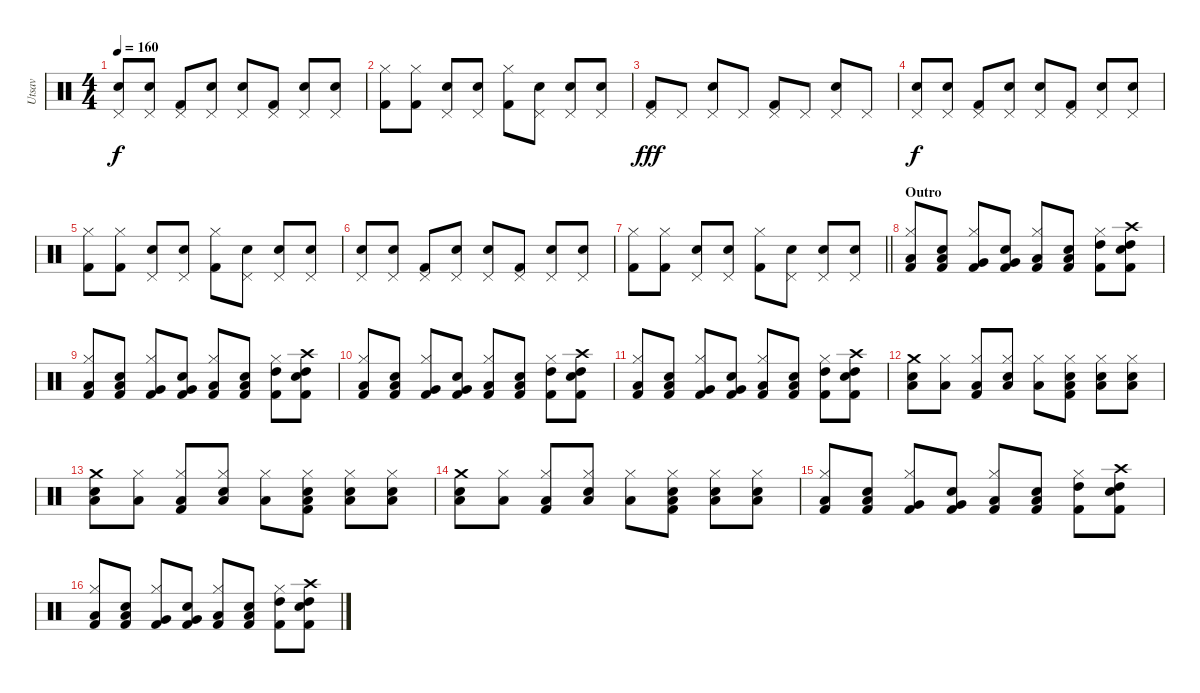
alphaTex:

\track ("Utsav" "Utsav") {instrument percussion}
\staff {score}
\articulation defaults
\ts (4 4)
\tempo 160
\clef neutral
\ks c
("Snare (hit) 2" "Pedal Hi-Hat (hit)").8{dy f} ("Snare (hit) 2" "Pedal Hi-Hat (hit)").8 ("Pedal Hi-Hat (hit)" "Kick (hit) 2").8 ("Snare (hit) 2" "Pedal Hi-Hat (hit)").8 ("Snare (hit) 2" "Pedal Hi-Hat (hit)").8 ("Pedal Hi-Hat (hit)" "Kick (hit) 2").8 ("Snare (hit) 2" "Pedal Hi-Hat (hit)").8 ("Snare (hit) 2" "Pedal Hi-Hat (hit)").8 |
("Kick (hit) 2" "Hi-Hat (closed)").8 ("Kick (hit) 2" "Hi-Hat (closed)").8 ("Pedal Hi-Hat (hit)" "Snare (hit) 2").8 ("Pedal Hi-Hat (hit)" "Snare (hit) 2").8 ("Kick (hit) 2" "Hi-Hat (closed)").8 ("Pedal Hi-Hat (hit)" "Snare (hit) 2").8 ("Pedal Hi-Hat (hit)" "Snare (hit) 2").8 ("Pedal Hi-Hat (hit)" "Snare (hit) 2").8 |
("Pedal Hi-Hat (hit)" "Kick (hit) 2").8{dy fff} "Pedal Hi-Hat (hit)".8 ("Pedal Hi-Hat (hit)" "Electric Snare (hit)").8 "Pedal Hi-Hat (hit)".8 ("Pedal Hi-Hat (hit)" "Kick (hit) 2").8 "Pedal Hi-Hat (hit)".8 ("Pedal Hi-Hat (hit)" "Electric Snare (hit)").8 "Pedal Hi-Hat (hit)".8 |
("Snare (hit) 2" "Pedal Hi-Hat (hit)").8{dy f} ("Snare (hit) 2" "Pedal Hi-Hat (hit)").8 ("Pedal Hi-Hat (hit)" "Kick (hit) 2").8 ("Snare (hit) 2" "Pedal Hi-Hat (hit)").8 ("Snare (hit) 2" "Pedal Hi-Hat (hit)").8 ("Pedal Hi-Hat (hit)" "Kick (hit) 2").8 ("Snare (hit) 2" "Pedal Hi-Hat (hit)").8 ("Snare (hit) 2" "Pedal Hi-Hat (hit)").8 |
("Kick (hit) 2" "Hi-Hat (closed)").8 ("Kick (hit) 2" "Hi-Hat (closed)").8 ("Pedal Hi-Hat (hit)" "Snare (hit) 2").8 ("Pedal Hi-Hat (hit)" "Snare (hit) 2").8 ("Kick (hit) 2" "Hi-Hat (closed)").8 ("Pedal Hi-Hat (hit)" "Snare (hit) 2").8 ("Pedal Hi-Hat (hit)" "Snare (hit) 2").8 ("Pedal Hi-Hat (hit)" "Snare (hit) 2").8 |
("Snare (hit) 2" "Pedal Hi-Hat (hit)").8 ("Snare (hit) 2" "Pedal Hi-Hat (hit)").8 ("Pedal Hi-Hat (hit)" "Kick (hit) 2").8 ("Snare (hit) 2" "Pedal Hi-Hat (hit)").8 ("Snare (hit) 2" "Pedal Hi-Hat (hit)").8 ("Pedal Hi-Hat (hit)" "Kick (hit) 2").8 ("Snare (hit) 2" "Pedal Hi-Hat (hit)").8 ("Snare (hit) 2" "Pedal Hi-Hat (hit)").8 |
\barLineRight lightlight
("Kick (hit) 2" "Hi-Hat (closed)").8 ("Kick (hit) 2" "Hi-Hat (closed)").8 ("Pedal Hi-Hat (hit)" "Snare (hit) 2").8 ("Pedal Hi-Hat (hit)" "Snare (hit) 2").8 ("Kick (hit) 2" "Hi-Hat (closed)").8 ("Pedal Hi-Hat (hit)" "Snare (hit) 2").8 ("Pedal Hi-Hat (hit)" "Snare (hit) 2").8 ("Pedal Hi-Hat (hit)" "Snare (hit) 2").8 |
\section ("" "Outro")
("Low Tom (hit)" "Hi-Hat (closed)" "Kick (hit) 2").8 ("Low Tom (hit)" "Snare (hit) 2" "Kick (hit) 2").8 ("Very Low Tom (hit)" "Hi-Hat (closed)" "Kick (hit) 2").8 ("Very Low Tom (hit)" "Snare (hit) 2" "Kick (hit) 2").8 ("Low Floor Tom (hit)" "Hi-Hat (closed)" "Kick (hit) 2").8 ("Low Floor Tom (hit)" "Snare (hit) 2" "Kick (hit) 2").8 ("High Tom (hit)" "Hi-Hat (closed)" "Kick (hit) 2").8 ("High Tom (hit)" "Crash high (hit)" "Snare (hit) 2" "Kick (hit) 2").8 |
("Low Tom (hit)" "Hi-Hat (closed)" "Kick (hit) 2").8 ("Low Tom (hit)" "Snare (hit) 2" "Kick (hit) 2").8 ("Very Low Tom (hit)" "Hi-Hat (closed)" "Kick (hit) 2").8 ("Very Low Tom (hit)" "Snare (hit) 2" "Kick (hit) 2").8 ("Low Floor Tom (hit)" "Hi-Hat (closed)" "Kick (hit) 2").8 ("Low Floor Tom (hit)" "Snare (hit) 2" "Kick (hit) 2").8 ("High Tom (hit)" "Hi-Hat (closed)" "Kick (hit) 2").8 ("High Tom (hit)" "Crash high (hit)" "Snare (hit) 2" "Kick (hit) 2").8 |
("Low Tom (hit)" "Hi-Hat (closed)" "Kick (hit) 2").8 ("Low Tom (hit)" "Snare (hit) 2" "Kick (hit) 2").8 ("Very Low Tom (hit)" "Hi-Hat (closed)" "Kick (hit) 2").8 ("Very Low Tom (hit)" "Snare (hit) 2" "Kick (hit) 2").8 ("Low Floor Tom (hit)" "Hi-Hat (closed)" "Kick (hit) 2").8 ("Low Floor Tom (hit)" "Snare (hit) 2" "Kick (hit) 2").8 ("High Tom (hit)" "Hi-Hat (closed)" "Kick (hit) 2").8 ("High Tom (hit)" "Crash high (hit)" "Snare (hit) 2" "Kick (hit) 2").8 |
("Low Tom (hit)" "Hi-Hat (closed)" "Kick (hit) 2").8 ("Low Tom (hit)" "Snare (hit) 2" "Kick (hit) 2").8 ("Very Low Tom (hit)" "Hi-Hat (closed)" "Kick (hit) 2").8 ("Very Low Tom (hit)" "Snare (hit) 2" "Kick (hit) 2").8 ("Low Floor Tom (hit)" "Hi-Hat (closed)" "Kick (hit) 2").8 ("Low Floor Tom (hit)" "Snare (hit) 2" "Kick (hit) 2").8 ("High Tom (hit)" "Hi-Hat (closed)" "Kick (hit) 2").8 ("High Tom (hit)" "Crash high (hit)" "Snare (hit) 2" "Kick (hit) 2").8 |
("Crash medium (hit)" "Low Floor Tom (hit)" "Snare (hit) 2").8 ("Low Floor Tom (hit)" "Hi-Hat (closed)").8 ("Low Floor Tom (hit)" "Hi-Hat (closed)" "Kick (hit) 2").8 ("Low Floor Tom (hit)" "Hi-Hat (closed)" "Snare (hit) 2").8 ("Low Floor Tom (hit)" "Hi-Hat (closed)").8 ("Low Floor Tom (hit)" "Hi-Hat (closed)" "Snare (hit) 2" "Kick (hit) 2").8 ("Low Floor Tom (hit)" "Hi-Hat (closed)" "Snare (hit) 2").8 ("Low Floor Tom (hit)" "Hi-Hat (closed)" "Snare (hit) 2").8 |
("Crash medium (hit)" "Low Floor Tom (hit)" "Snare (hit) 2").8 ("Low Floor Tom (hit)" "Hi-Hat (closed)").8 ("Low Floor Tom (hit)" "Hi-Hat (closed)" "Kick (hit) 2").8 ("Low Floor Tom (hit)" "Hi-Hat (closed)" "Snare (hit) 2").8 ("Low Floor Tom (hit)" "Hi-Hat (closed)").8 ("Low Floor Tom (hit)" "Hi-Hat (closed)" "Snare (hit) 2" "Kick (hit) 2").8 ("Low Floor Tom (hit)" "Hi-Hat (closed)" "Snare (hit) 2").8 ("Low Floor Tom (hit)" "Hi-Hat (closed)" "Snare (hit) 2").8 |
("Crash medium (hit)" "Low Floor Tom (hit)" "Snare (hit) 2").8 ("Low Floor Tom (hit)" "Hi-Hat (closed)").8 ("Low Floor Tom (hit)" "Hi-Hat (closed)" "Kick (hit) 2").8 ("Low Floor Tom (hit)" "Hi-Hat (closed)" "Snare (hit) 2").8 ("Low Floor Tom (hit)" "Hi-Hat (closed)").8 ("Low Floor Tom (hit)" "Hi-Hat (closed)" "Snare (hit) 2" "Kick (hit) 2").8 ("Low Floor Tom (hit)" "Hi-Hat (closed)" "Snare (hit) 2").8 ("Low Floor Tom (hit)" "Hi-Hat (closed)" "Snare (hit) 2").8 |
("Low Tom (hit)" "Hi-Hat (closed)" "Kick (hit) 2").8 ("Low Tom (hit)" "Snare (hit) 2" "Kick (hit) 2").8 ("Very Low Tom (hit)" "Hi-Hat (closed)" "Kick (hit) 2").8 ("Very Low Tom (hit)" "Snare (hit) 2" "Kick (hit) 2").8 ("Low Floor Tom (hit)" "Hi-Hat (closed)" "Kick (hit) 2").8 ("Low Floor Tom (hit)" "Snare (hit) 2" "Kick (hit) 2").8 ("High Tom (hit)" "Hi-Hat (closed)" "Kick (hit) 2").8 ("High Tom (hit)" "Crash high (hit)" "Snare (hit) 2" "Kick (hit) 2").8 |
("Low Tom (hit)" "Hi-Hat (closed)" "Kick (hit) 2").8 ("Low Tom (hit)" "Snare (hit) 2" "Kick (hit) 2").8 ("Very Low Tom (hit)" "Hi-Hat (closed)" "Kick (hit) 2").8 ("Very Low Tom (hit)" "Snare (hit) 2" "Kick (hit) 2").8 ("Low Floor Tom (hit)" "Hi-Hat (closed)" "Kick (hit) 2").8 ("Low Floor Tom (hit)" "Snare (hit) 2" "Kick (hit) 2").8 ("High Tom (hit)" "Hi-Hat (closed)" "Kick (hit) 2").8 ("High Tom (hit)" "Crash high (hit)" "Snare (hit) 2" "Kick (hit) 2").8
